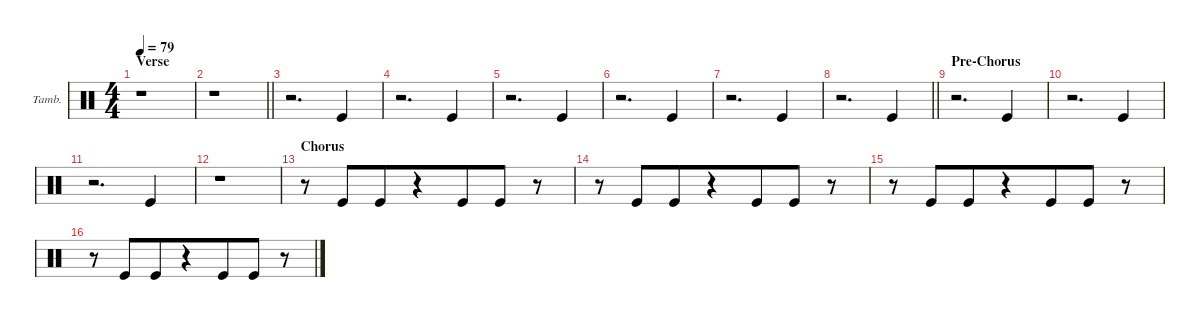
\defaultSystemsLayout 4
\hideDynamics
\bracketExtendMode groupsimilarinstruments
\firstSystemTrackNameOrientation horizontal
\otherSystemsTrackNameOrientation horizontal
\track ("Tambourine" "Tamb.") {multiBarRest instrument percussion}
\staff {score}
\articulation defaults
\ts (4 4)
\section ("" "Verse")
\tempo 79
\clef neutral
\ks c
r.1{dy mf beam merge} |
\barLineRight lightlight
r.1{beam merge} |
r.2{d beam merge} "Kick (hit)".4{beam merge} |
r.2{d beam merge} "Kick (hit)".4{beam merge} |
r.2{d beam merge} "Kick (hit)".4{beam merge} |
r.2{d beam merge} "Kick (hit)".4{beam merge} |
r.2{d beam merge} "Kick (hit)".4{beam merge} |
\barLineRight lightlight
r.2{d beam merge} "Kick (hit)".4{beam merge} |
\section ("" "Pre-Chorus")
r.2{d beam merge} "Kick (hit)".4{beam merge} |
r.2{d beam merge} "Kick (hit)".4{beam merge} |
r.2{d beam merge} "Kick (hit)".4{beam merge} |
r.1{beam merge} |
\section ("" "Chorus")
r.8{beam merge} "Kick (hit)".8{beam merge} "Kick (hit)".8{beam merge} r.4{beam merge} "Kick (hit)".8{beam merge} "Kick (hit)".8{beam merge} r.8{beam merge} |
r.8{beam merge} "Kick (hit)".8{beam merge} "Kick (hit)".8{beam merge} r.4{beam merge} "Kick (hit)".8{beam merge} "Kick (hit)".8{beam merge} r.8{beam merge} |
r.8{beam merge} "Kick (hit)".8{beam merge} "Kick (hit)".8{beam merge} r.4{beam merge} "Kick (hit)".8{beam merge} "Kick (hit)".8{beam merge} r.8{beam merge} |
r.8{beam merge} "Kick (hit)".8{beam merge} "Kick (hit)".8{beam merge} r.4{beam merge} "Kick (hit)".8{beam merge} "Kick (hit)".8{beam merge} r.8{beam merge}
